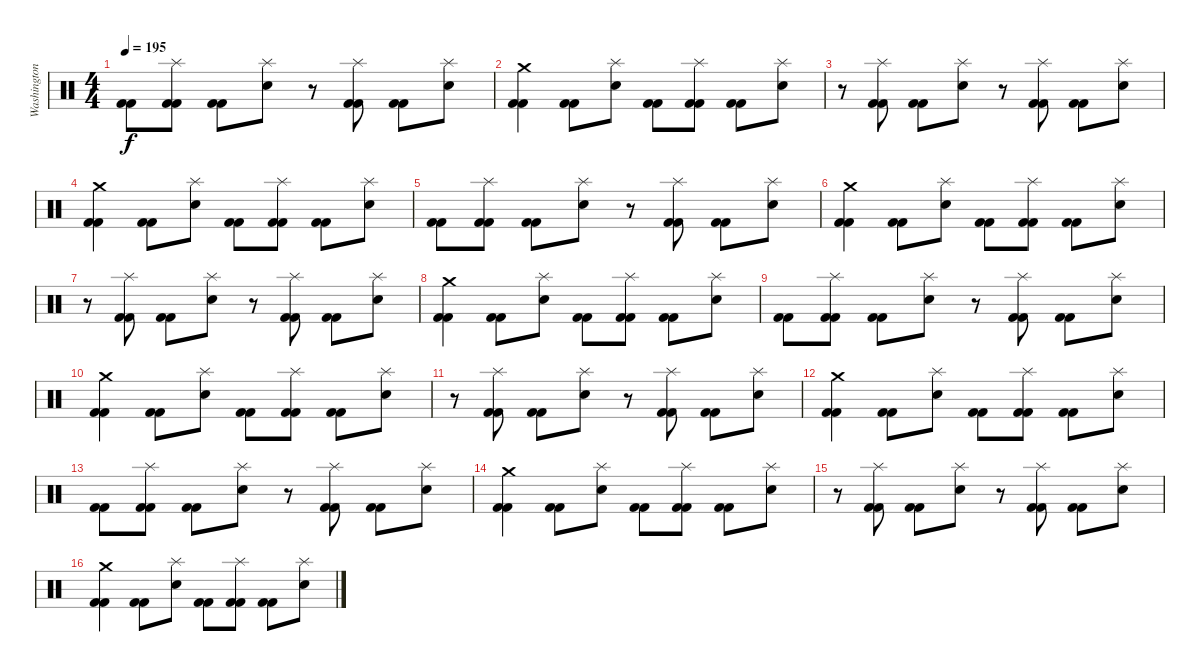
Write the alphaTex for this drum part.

\track ("Washington" "Washington") {solo instrument percussion}
\staff {score}
\articulation defaults
\ts (4 4)
\tempo 195
\clef neutral
\ks c
("Kick (hit) 2" "Kick (hit) 2").8{dy f} ("Splash (hit)" "Kick (hit) 2" "Kick (hit) 2").8 ("Kick (hit) 2" "Kick (hit) 2").8 ("Splash (hit)" "Electric Snare (hit)").8 r.8 ("Splash (hit)" "Kick (hit) 2" "Kick (hit) 2").8 ("Kick (hit) 2" "Kick (hit) 2").8 ("Splash (hit)" "Electric Snare (hit)").8 |
("Crash medium (hit)" "Kick (hit) 2" "Kick (hit) 2").4 ("Kick (hit) 2" "Kick (hit) 2").8 ("Splash (hit)" "Electric Snare (hit)").8 ("Kick (hit) 2" "Kick (hit) 2").8 ("Splash (hit)" "Kick (hit) 2" "Kick (hit) 2").8 ("Kick (hit) 2" "Kick (hit) 2").8 ("Splash (hit)" "Electric Snare (hit)").8 |
r.8 ("Splash (hit)" "Kick (hit) 2" "Kick (hit) 2").8 ("Kick (hit) 2" "Kick (hit) 2").8 ("Splash (hit)" "Electric Snare (hit)").8 r.8 ("Splash (hit)" "Kick (hit) 2" "Kick (hit) 2").8 ("Kick (hit) 2" "Kick (hit) 2").8 ("Splash (hit)" "Electric Snare (hit)").8 |
("Crash medium (hit)" "Kick (hit) 2" "Kick (hit) 2").4 ("Kick (hit) 2" "Kick (hit) 2").8 ("Splash (hit)" "Electric Snare (hit)").8 ("Kick (hit) 2" "Kick (hit) 2").8 ("Splash (hit)" "Kick (hit) 2" "Kick (hit) 2").8 ("Kick (hit) 2" "Kick (hit) 2").8 ("Splash (hit)" "Electric Snare (hit)").8 |
("Kick (hit) 2" "Kick (hit) 2").8 ("Splash (hit)" "Kick (hit) 2" "Kick (hit) 2").8 ("Kick (hit) 2" "Kick (hit) 2").8 ("Splash (hit)" "Electric Snare (hit)").8 r.8 ("Splash (hit)" "Kick (hit) 2" "Kick (hit) 2").8 ("Kick (hit) 2" "Kick (hit) 2").8 ("Splash (hit)" "Electric Snare (hit)").8 |
("Crash medium (hit)" "Kick (hit) 2" "Kick (hit) 2").4 ("Kick (hit) 2" "Kick (hit) 2").8 ("Splash (hit)" "Electric Snare (hit)").8 ("Kick (hit) 2" "Kick (hit) 2").8 ("Splash (hit)" "Kick (hit) 2" "Kick (hit) 2").8 ("Kick (hit) 2" "Kick (hit) 2").8 ("Splash (hit)" "Electric Snare (hit)").8 |
r.8 ("Splash (hit)" "Kick (hit) 2" "Kick (hit) 2").8 ("Kick (hit) 2" "Kick (hit) 2").8 ("Splash (hit)" "Electric Snare (hit)").8 r.8 ("Splash (hit)" "Kick (hit) 2" "Kick (hit) 2").8 ("Kick (hit) 2" "Kick (hit) 2").8 ("Splash (hit)" "Electric Snare (hit)").8 |
("Crash medium (hit)" "Kick (hit) 2" "Kick (hit) 2").4 ("Kick (hit) 2" "Kick (hit) 2").8 ("Splash (hit)" "Electric Snare (hit)").8 ("Kick (hit) 2" "Kick (hit) 2").8 ("Splash (hit)" "Kick (hit) 2" "Kick (hit) 2").8 ("Kick (hit) 2" "Kick (hit) 2").8 ("Splash (hit)" "Electric Snare (hit)").8 |
("Kick (hit) 2" "Kick (hit) 2").8 ("Splash (hit)" "Kick (hit) 2" "Kick (hit) 2").8 ("Kick (hit) 2" "Kick (hit) 2").8 ("Splash (hit)" "Electric Snare (hit)").8 r.8 ("Splash (hit)" "Kick (hit) 2" "Kick (hit) 2").8 ("Kick (hit) 2" "Kick (hit) 2").8 ("Splash (hit)" "Electric Snare (hit)").8 |
("Crash medium (hit)" "Kick (hit) 2" "Kick (hit) 2").4 ("Kick (hit) 2" "Kick (hit) 2").8 ("Splash (hit)" "Electric Snare (hit)").8 ("Kick (hit) 2" "Kick (hit) 2").8 ("Splash (hit)" "Kick (hit) 2" "Kick (hit) 2").8 ("Kick (hit) 2" "Kick (hit) 2").8 ("Splash (hit)" "Electric Snare (hit)").8 |
r.8 ("Splash (hit)" "Kick (hit) 2" "Kick (hit) 2").8 ("Kick (hit) 2" "Kick (hit) 2").8 ("Splash (hit)" "Electric Snare (hit)").8 r.8 ("Splash (hit)" "Kick (hit) 2" "Kick (hit) 2").8 ("Kick (hit) 2" "Kick (hit) 2").8 ("Splash (hit)" "Electric Snare (hit)").8 |
("Crash medium (hit)" "Kick (hit) 2" "Kick (hit) 2").4 ("Kick (hit) 2" "Kick (hit) 2").8 ("Splash (hit)" "Electric Snare (hit)").8 ("Kick (hit) 2" "Kick (hit) 2").8 ("Splash (hit)" "Kick (hit) 2" "Kick (hit) 2").8 ("Kick (hit) 2" "Kick (hit) 2").8 ("Splash (hit)" "Electric Snare (hit)").8 |
("Kick (hit) 2" "Kick (hit) 2").8 ("Splash (hit)" "Kick (hit) 2" "Kick (hit) 2").8 ("Kick (hit) 2" "Kick (hit) 2").8 ("Splash (hit)" "Electric Snare (hit)").8 r.8 ("Splash (hit)" "Kick (hit) 2" "Kick (hit) 2").8 ("Kick (hit) 2" "Kick (hit) 2").8 ("Splash (hit)" "Electric Snare (hit)").8 |
("Crash medium (hit)" "Kick (hit) 2" "Kick (hit) 2").4 ("Kick (hit) 2" "Kick (hit) 2").8 ("Splash (hit)" "Electric Snare (hit)").8 ("Kick (hit) 2" "Kick (hit) 2").8 ("Splash (hit)" "Kick (hit) 2" "Kick (hit) 2").8 ("Kick (hit) 2" "Kick (hit) 2").8 ("Splash (hit)" "Electric Snare (hit)").8 |
r.8 ("Splash (hit)" "Kick (hit) 2" "Kick (hit) 2").8 ("Kick (hit) 2" "Kick (hit) 2").8 ("Splash (hit)" "Electric Snare (hit)").8 r.8 ("Splash (hit)" "Kick (hit) 2" "Kick (hit) 2").8 ("Kick (hit) 2" "Kick (hit) 2").8 ("Splash (hit)" "Electric Snare (hit)").8 |
("Crash medium (hit)" "Kick (hit) 2" "Kick (hit) 2").4 ("Kick (hit) 2" "Kick (hit) 2").8 ("Splash (hit)" "Electric Snare (hit)").8 ("Kick (hit) 2" "Kick (hit) 2").8 ("Splash (hit)" "Kick (hit) 2" "Kick (hit) 2").8 ("Kick (hit) 2" "Kick (hit) 2").8 ("Splash (hit)" "Electric Snare (hit)").8
